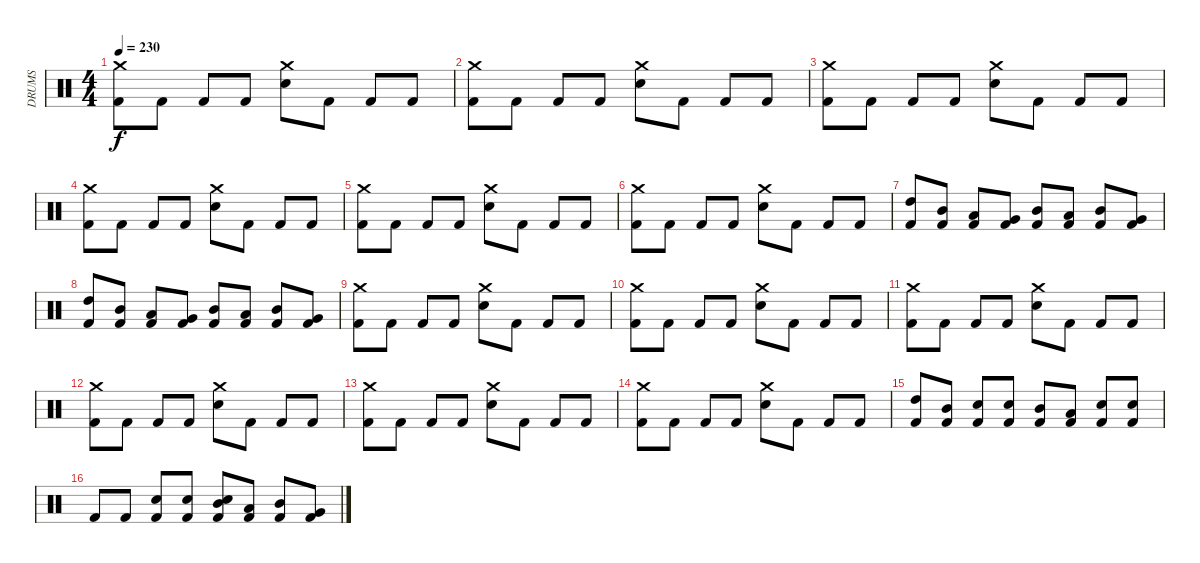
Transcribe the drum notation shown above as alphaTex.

\track ("DRUMS" "DRUMS") {instrument percussion}
\staff {score}
\articulation defaults
\ts (4 4)
\tempo 230
\clef neutral
\ks c
("Crash medium (hit)" "Kick (hit) 2").8{dy f} "Kick (hit) 2".8 "Kick (hit) 2".8 "Kick (hit) 2".8 ("Crash medium (hit)" "Snare (hit) 2").8 "Kick (hit) 2".8 "Kick (hit) 2".8 "Kick (hit) 2".8 |
("Crash medium (hit)" "Kick (hit) 2").8 "Kick (hit) 2".8 "Kick (hit) 2".8 "Kick (hit) 2".8 ("Crash medium (hit)" "Snare (hit) 2").8 "Kick (hit) 2".8 "Kick (hit) 2".8 "Kick (hit) 2".8 |
("Crash medium (hit)" "Kick (hit) 2").8 "Kick (hit) 2".8 "Kick (hit) 2".8 "Kick (hit) 2".8 ("Crash medium (hit)" "Snare (hit) 2").8 "Kick (hit) 2".8 "Kick (hit) 2".8 "Kick (hit) 2".8 |
("Crash medium (hit)" "Kick (hit) 2").8 "Kick (hit) 2".8 "Kick (hit) 2".8 "Kick (hit) 2".8 ("Crash medium (hit)" "Snare (hit) 2").8 "Kick (hit) 2".8 "Kick (hit) 2".8 "Kick (hit) 2".8 |
("Crash medium (hit)" "Kick (hit) 2").8 "Kick (hit) 2".8 "Kick (hit) 2".8 "Kick (hit) 2".8 ("Crash medium (hit)" "Snare (hit) 2").8 "Kick (hit) 2".8 "Kick (hit) 2".8 "Kick (hit) 2".8 |
("Crash medium (hit)" "Kick (hit) 2").8 "Kick (hit) 2".8 "Kick (hit) 2".8 "Kick (hit) 2".8 ("Crash medium (hit)" "Snare (hit) 2").8 "Kick (hit) 2".8 "Kick (hit) 2".8 "Kick (hit) 2".8 |
("High Tom (hit)" "Kick (hit) 2").8 ("Mid Tom (hit)" "Kick (hit) 2").8 ("Low Tom (hit)" "Kick (hit) 2").8 ("Very Low Tom (hit)" "Kick (hit) 2").8 ("Mid Tom (hit)" "Kick (hit) 2").8 ("Low Tom (hit)" "Kick (hit) 2").8 ("Mid Tom (hit)" "Kick (hit) 2").8 ("Very Low Tom (hit)" "Kick (hit) 2").8 |
("High Tom (hit)" "Kick (hit) 2").8 ("Mid Tom (hit)" "Kick (hit) 2").8 ("Low Tom (hit)" "Kick (hit) 2").8 ("Very Low Tom (hit)" "Kick (hit) 2").8 ("Mid Tom (hit)" "Kick (hit) 2").8 ("Low Tom (hit)" "Kick (hit) 2").8 ("Mid Tom (hit)" "Kick (hit) 2").8 ("Very Low Tom (hit)" "Kick (hit) 2").8 |
("Crash medium (hit)" "Kick (hit) 2").8 "Kick (hit) 2".8 "Kick (hit) 2".8 "Kick (hit) 2".8 ("Crash medium (hit)" "Snare (hit) 2").8 "Kick (hit) 2".8 "Kick (hit) 2".8 "Kick (hit) 2".8 |
("Crash medium (hit)" "Kick (hit) 2").8 "Kick (hit) 2".8 "Kick (hit) 2".8 "Kick (hit) 2".8 ("Crash medium (hit)" "Snare (hit) 2").8 "Kick (hit) 2".8 "Kick (hit) 2".8 "Kick (hit) 2".8 |
("Crash medium (hit)" "Kick (hit) 2").8 "Kick (hit) 2".8 "Kick (hit) 2".8 "Kick (hit) 2".8 ("Crash medium (hit)" "Snare (hit) 2").8 "Kick (hit) 2".8 "Kick (hit) 2".8 "Kick (hit) 2".8 |
("Crash medium (hit)" "Kick (hit) 2").8 "Kick (hit) 2".8 "Kick (hit) 2".8 "Kick (hit) 2".8 ("Crash medium (hit)" "Snare (hit) 2").8 "Kick (hit) 2".8 "Kick (hit) 2".8 "Kick (hit) 2".8 |
("Crash medium (hit)" "Kick (hit) 2").8 "Kick (hit) 2".8 "Kick (hit) 2".8 "Kick (hit) 2".8 ("Crash medium (hit)" "Snare (hit) 2").8 "Kick (hit) 2".8 "Kick (hit) 2".8 "Kick (hit) 2".8 |
("Crash medium (hit)" "Kick (hit) 2").8 "Kick (hit) 2".8 "Kick (hit) 2".8 "Kick (hit) 2".8 ("Crash medium (hit)" "Snare (hit) 2").8 "Kick (hit) 2".8 "Kick (hit) 2".8 "Kick (hit) 2".8 |
("High Tom (hit)" "Kick (hit) 2").8 ("Mid Tom (hit)" "Kick (hit) 2").8 ("Snare (hit) 2" "Kick (hit) 2").8 ("Snare (hit) 2" "Kick (hit) 2").8 ("Mid Tom (hit)" "Kick (hit) 2").8 ("Low Tom (hit)" "Kick (hit) 2").8 ("Snare (hit) 2" "Kick (hit) 2").8 ("Snare (hit) 2" "Kick (hit) 2").8 |
"Kick (hit) 2".8 "Kick (hit) 2".8 ("Snare (hit) 2" "Kick (hit) 2").8 ("Snare (hit) 2" "Kick (hit) 2").8 ("Mid Tom (hit)" "Snare (hit) 2" "Kick (hit) 2").8 ("Low Tom (hit)" "Kick (hit) 2").8 ("Mid Tom (hit)" "Kick (hit) 2").8 ("Very Low Tom (hit)" "Kick (hit) 2").8
